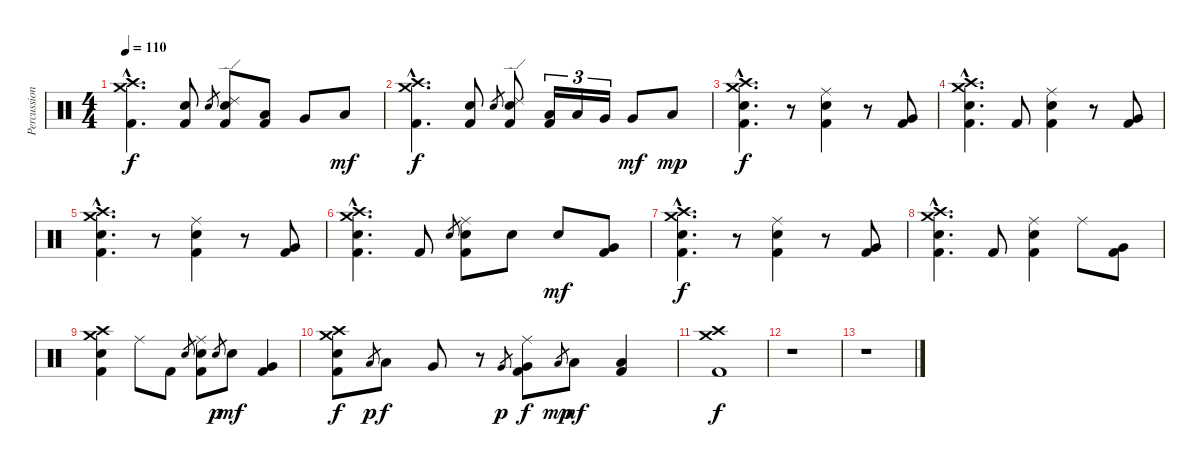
\track ("Percussion" "Percussion") {instrument percussion}
\staff {score}
\articulation defaults
\ts (4 4)
\tempo 110
\clef neutral
\ks c
("Crash high (hit)"{hac} "Crash medium (hit)"{hac} "Kick (hit) 2"{hac}).4{d dy f} ("Electric Snare (hit)" "Kick (hit) 2").8 "Electric Snare (hit)".8{gr} ("Ride (edge) 2" "Electric Snare (hit)" "Kick (hit) 2").8 ("Low Tom (hit)" "Kick (hit) 2").8 "Very Low Tom (hit)".8 "Low Floor Tom (hit)".8{dy mf} |
("Crash high (hit)"{hac} "Crash medium (hit)"{hac} "Kick (hit) 2"{hac}).4{d dy f} ("Electric Snare (hit)" "Kick (hit) 2").8 "Electric Snare (hit)".8{gr} ("Ride (edge) 2" "Electric Snare (hit)" "Kick (hit) 2").8 ("Low Tom (hit)" "Kick (hit) 2").16{tu (3 2)} "Low Tom (hit)".16{tu (3 2)} "Very Low Tom (hit)".16{tu (3 2)} "Very Low Tom (hit)".8{dy mf} "Low Floor Tom (hit)".8{dy mp} |
("Crash high (hit)"{hac} "Crash medium (hit)"{hac} "Electric Snare (hit)"{hac} "Kick (hit) 2"{hac}).4{d dy f} r.8 ("Ride (middle)" "Electric Snare (hit)" "Kick (hit) 2").4 r.8 ("Very Low Tom (hit)" "Kick (hit) 2").8 |
("Crash high (hit)"{hac} "Crash medium (hit)"{hac} "Electric Snare (hit)"{hac} "Kick (hit) 2"{hac}).4{d} "Kick (hit) 2".8 ("Ride (middle)" "Electric Snare (hit)" "Kick (hit) 2").4 r.8 ("Very Low Tom (hit)" "Kick (hit) 2").8 |
("Crash high (hit)"{hac} "Crash medium (hit)"{hac} "Electric Snare (hit)"{hac} "Kick (hit) 2"{hac}).4{d} r.8 ("Ride (middle)" "Electric Snare (hit)" "Kick (hit) 2").4 r.8 ("Very Low Tom (hit)" "Kick (hit) 2").8 |
("Crash high (hit)"{hac} "Crash medium (hit)"{hac} "Electric Snare (hit)"{hac} "Kick (hit) 2"{hac}).4{d} "Kick (hit) 2".8 "Electric Snare (hit)".8{gr} ("Ride (middle)" "Electric Snare (hit)" "Kick (hit) 2").8 "Electric Snare (hit)".8 "Electric Snare (hit)".8{dy mf} ("Very Low Tom (hit)" "Kick (hit) 2").8 |
("Crash high (hit)"{hac} "Crash medium (hit)"{hac} "Electric Snare (hit)"{hac} "Kick (hit) 2"{hac}).4{d dy f} r.8 ("Ride (middle)" "Electric Snare (hit)" "Kick (hit) 2").4 r.8 ("Very Low Tom (hit)" "Kick (hit) 2").8 |
("Crash high (hit)"{hac} "Crash medium (hit)"{hac} "Electric Snare (hit)"{hac} "Kick (hit) 2"{hac}).4{d} "Kick (hit) 2".8 ("Ride (middle)" "Electric Snare (hit)" "Kick (hit) 2").4 "Ride (middle)".8 ("Very Low Tom (hit)" "Kick (hit) 2").8 |
("Crash high (hit)" "Crash medium (hit)" "Electric Snare (hit)" "Kick (hit) 2").4 "Ride (middle)".8 "Kick (hit) 2".8 "Electric Snare (hit)".8{gr} ("Ride (middle)" "Electric Snare (hit)" "Kick (hit) 2").8 "Electric Snare (hit)".8{gr dy p} "Electric Snare (hit)".8{dy mf} ("Very Low Tom (hit)" "Kick (hit) 2").4 |
("Crash high (hit)" "Crash medium (hit)" "Electric Snare (hit)" "Kick (hit) 2").8{dy f} "Low Tom (hit)".8{gr dy p} "Low Tom (hit)".8{dy f} "Very Low Tom (hit)".8 r.8 "Very Low Tom (hit)".8{gr dy p} ("Ride (middle)" "Very Low Tom (hit)" "Kick (hit) 2").8{dy f} "Low Floor Tom (hit)".8{gr dy mp} "Low Floor Tom (hit)".8{dy mf} ("Low Floor Tom (hit)" "Kick (hit) 2").4 |
("Crash high (hit)" "Crash medium (hit)" "Kick (hit) 2").1{dy f} |
r.1 |
r.1
